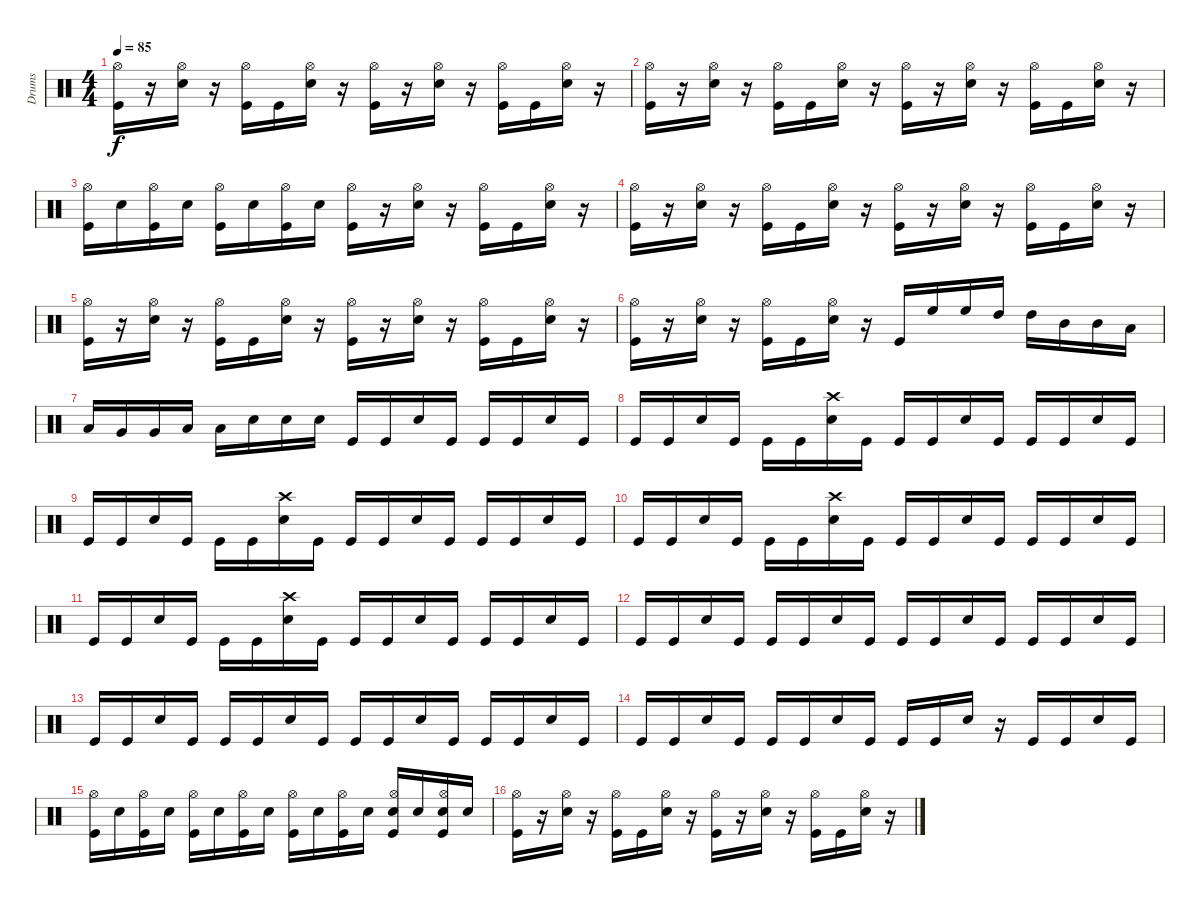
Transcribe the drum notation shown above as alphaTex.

\track ("Drums" "Drums") {instrument percussion}
\staff {score}
\articulation defaults
\ts (4 4)
\tempo 85
\clef neutral
\ks c
("Kick (hit)" "Hi-Hat (open)").16{dy f} r.16 ("Snare (hit) 2" "Hi-Hat (open)").16 r.16 ("Kick (hit)" "Hi-Hat (open)").16 "Kick (hit)".16 ("Snare (hit) 2" "Hi-Hat (open)").16 r.16 ("Kick (hit)" "Hi-Hat (open)").16 r.16 ("Snare (hit) 2" "Hi-Hat (open)").16 r.16 ("Kick (hit)" "Hi-Hat (open)").16 "Kick (hit)".16 ("Snare (hit) 2" "Hi-Hat (open)").16 r.16 |
("Kick (hit)" "Hi-Hat (open)").16 r.16 ("Snare (hit) 2" "Hi-Hat (open)").16 r.16 ("Kick (hit)" "Hi-Hat (open)").16 "Kick (hit)".16 ("Snare (hit) 2" "Hi-Hat (open)").16 r.16 ("Kick (hit)" "Hi-Hat (open)").16 r.16 ("Snare (hit) 2" "Hi-Hat (open)").16 r.16 ("Kick (hit)" "Hi-Hat (open)").16 "Kick (hit)".16 ("Snare (hit) 2" "Hi-Hat (open)").16 r.16 |
("Kick (hit)" "Hi-Hat (open)").16 "Snare (hit) 2".16 ("Hi-Hat (open)" "Kick (hit)").16 "Snare (hit) 2".16 ("Kick (hit)" "Hi-Hat (open)").16 "Snare (hit) 2".16 ("Hi-Hat (open)" "Kick (hit)").16 "Snare (hit) 2".16 ("Kick (hit)" "Hi-Hat (open)").16 r.16 ("Snare (hit) 2" "Hi-Hat (open)").16 r.16 ("Kick (hit)" "Hi-Hat (open)").16 "Kick (hit)".16 ("Snare (hit) 2" "Hi-Hat (open)").16 r.16 |
("Kick (hit)" "Hi-Hat (open)").16 r.16 ("Snare (hit) 2" "Hi-Hat (open)").16 r.16 ("Kick (hit)" "Hi-Hat (open)").16 "Kick (hit)".16 ("Snare (hit) 2" "Hi-Hat (open)").16 r.16 ("Kick (hit)" "Hi-Hat (open)").16 r.16 ("Snare (hit) 2" "Hi-Hat (open)").16 r.16 ("Kick (hit)" "Hi-Hat (open)").16 "Kick (hit)".16 ("Snare (hit) 2" "Hi-Hat (open)").16 r.16 |
("Kick (hit)" "Hi-Hat (open)").16 r.16 ("Snare (hit) 2" "Hi-Hat (open)").16 r.16 ("Kick (hit)" "Hi-Hat (open)").16 "Kick (hit)".16 ("Snare (hit) 2" "Hi-Hat (open)").16 r.16 ("Kick (hit)" "Hi-Hat (open)").16 r.16 ("Snare (hit) 2" "Hi-Hat (open)").16 r.16 ("Kick (hit)" "Hi-Hat (open)").16 "Kick (hit)".16 ("Snare (hit) 2" "Hi-Hat (open)").16 r.16 |
("Kick (hit)" "Hi-Hat (open)").16 r.16 ("Snare (hit) 2" "Hi-Hat (open)").16 r.16 ("Kick (hit)" "Hi-Hat (open)").16 "Kick (hit)".16 ("Snare (hit) 2" "Hi-Hat (open)").16 r.16 "Kick (hit)".16 "High Floor Tom (hit)".16 "High Floor Tom (hit)".16 "High Tom (hit)".16 "High Tom (hit)".16 "Mid Tom (hit)".16 "Mid Tom (hit)".16 "Low Tom (hit)".16 |
"Low Tom (hit)".16 "Very Low Tom (hit)".16 "Very Low Tom (hit)".16 "Low Floor Tom (hit)".16 "Low Floor Tom (hit)".16 "Snare (hit) 2".16 "Snare (hit) 2".16 "Snare (hit) 2".16 "Kick (hit)".16 "Kick (hit)".16 "Snare (hit) 2".16 "Kick (hit)".16 "Kick (hit)".16 "Kick (hit)".16 "Snare (hit) 2".16 "Kick (hit)".16 |
"Kick (hit)".16 "Kick (hit)".16 "Snare (hit) 2".16 "Kick (hit)".16 "Kick (hit)".16 "Kick (hit)".16 ("Snare (hit) 2" "Crash high (hit)").16 "Kick (hit)".16 "Kick (hit)".16 "Kick (hit)".16 "Snare (hit) 2".16 "Kick (hit)".16 "Kick (hit)".16 "Kick (hit)".16 "Snare (hit) 2".16 "Kick (hit)".16 |
"Kick (hit)".16 "Kick (hit)".16 "Snare (hit) 2".16 "Kick (hit)".16 "Kick (hit)".16 "Kick (hit)".16 ("Snare (hit) 2" "Crash high (hit)").16 "Kick (hit)".16 "Kick (hit)".16 "Kick (hit)".16 "Snare (hit) 2".16 "Kick (hit)".16 "Kick (hit)".16 "Kick (hit)".16 "Snare (hit) 2".16 "Kick (hit)".16 |
"Kick (hit)".16 "Kick (hit)".16 "Snare (hit) 2".16 "Kick (hit)".16 "Kick (hit)".16 "Kick (hit)".16 ("Snare (hit) 2" "Crash high (hit)").16 "Kick (hit)".16 "Kick (hit)".16 "Kick (hit)".16 "Snare (hit) 2".16 "Kick (hit)".16 "Kick (hit)".16 "Kick (hit)".16 "Snare (hit) 2".16 "Kick (hit)".16 |
"Kick (hit)".16 "Kick (hit)".16 "Snare (hit) 2".16 "Kick (hit)".16 "Kick (hit)".16 "Kick (hit)".16 ("Snare (hit) 2" "Crash high (hit)").16 "Kick (hit)".16 "Kick (hit)".16 "Kick (hit)".16 "Snare (hit) 2".16 "Kick (hit)".16 "Kick (hit)".16 "Kick (hit)".16 "Snare (hit) 2".16 "Kick (hit)".16 |
"Kick (hit)".16 "Kick (hit)".16 "Snare (hit) 2".16 "Kick (hit)".16 "Kick (hit)".16 "Kick (hit)".16 "Snare (hit) 2".16 "Kick (hit)".16 "Kick (hit)".16 "Kick (hit)".16 "Snare (hit) 2".16 "Kick (hit)".16 "Kick (hit)".16 "Kick (hit)".16 "Snare (hit) 2".16 "Kick (hit)".16 |
"Kick (hit)".16 "Kick (hit)".16 "Snare (hit) 2".16 "Kick (hit)".16 "Kick (hit)".16 "Kick (hit)".16 "Snare (hit) 2".16 "Kick (hit)".16 "Kick (hit)".16 "Kick (hit)".16 "Snare (hit) 2".16 "Kick (hit)".16 "Kick (hit)".16 "Kick (hit)".16 "Snare (hit) 2".16 "Kick (hit)".16 |
"Kick (hit)".16 "Kick (hit)".16 "Snare (hit) 2".16 "Kick (hit)".16 "Kick (hit)".16 "Kick (hit)".16 "Snare (hit) 2".16 "Kick (hit)".16 "Kick (hit)".16 "Kick (hit)".16 "Snare (hit) 2".16 r.16 "Kick (hit)".16 "Kick (hit)".16 "Snare (hit) 2".16 "Kick (hit)".16 |
("Kick (hit)" "Hi-Hat (open)").16 "Snare (hit) 2".16 ("Kick (hit)" "Hi-Hat (open)").16 "Snare (hit) 2".16 ("Kick (hit)" "Hi-Hat (open)").16 "Snare (hit) 2".16 ("Kick (hit)" "Hi-Hat (open)").16 "Snare (hit) 2".16 ("Kick (hit)" "Hi-Hat (open)").16 "Snare (hit) 2".16 ("Kick (hit)" "Hi-Hat (open)").16 "Snare (hit) 2".16 ("Kick (hit)" "Snare (hit) 2" "Hi-Hat (open)").16 "Snare (hit) 2".16 ("Kick (hit)" "Hi-Hat (open)" "Snare (hit) 2").16 "Snare (hit) 2".16 |
("Kick (hit)" "Hi-Hat (open)").16 r.16 ("Snare (hit) 2" "Hi-Hat (open)").16 r.16 ("Kick (hit)" "Hi-Hat (open)").16 "Kick (hit)".16 ("Snare (hit) 2" "Hi-Hat (open)").16 r.16 ("Kick (hit)" "Hi-Hat (open)").16 r.16 ("Snare (hit) 2" "Hi-Hat (open)").16 r.16 ("Kick (hit)" "Hi-Hat (open)").16 "Kick (hit)".16 ("Snare (hit) 2" "Hi-Hat (open)").16 r.16
